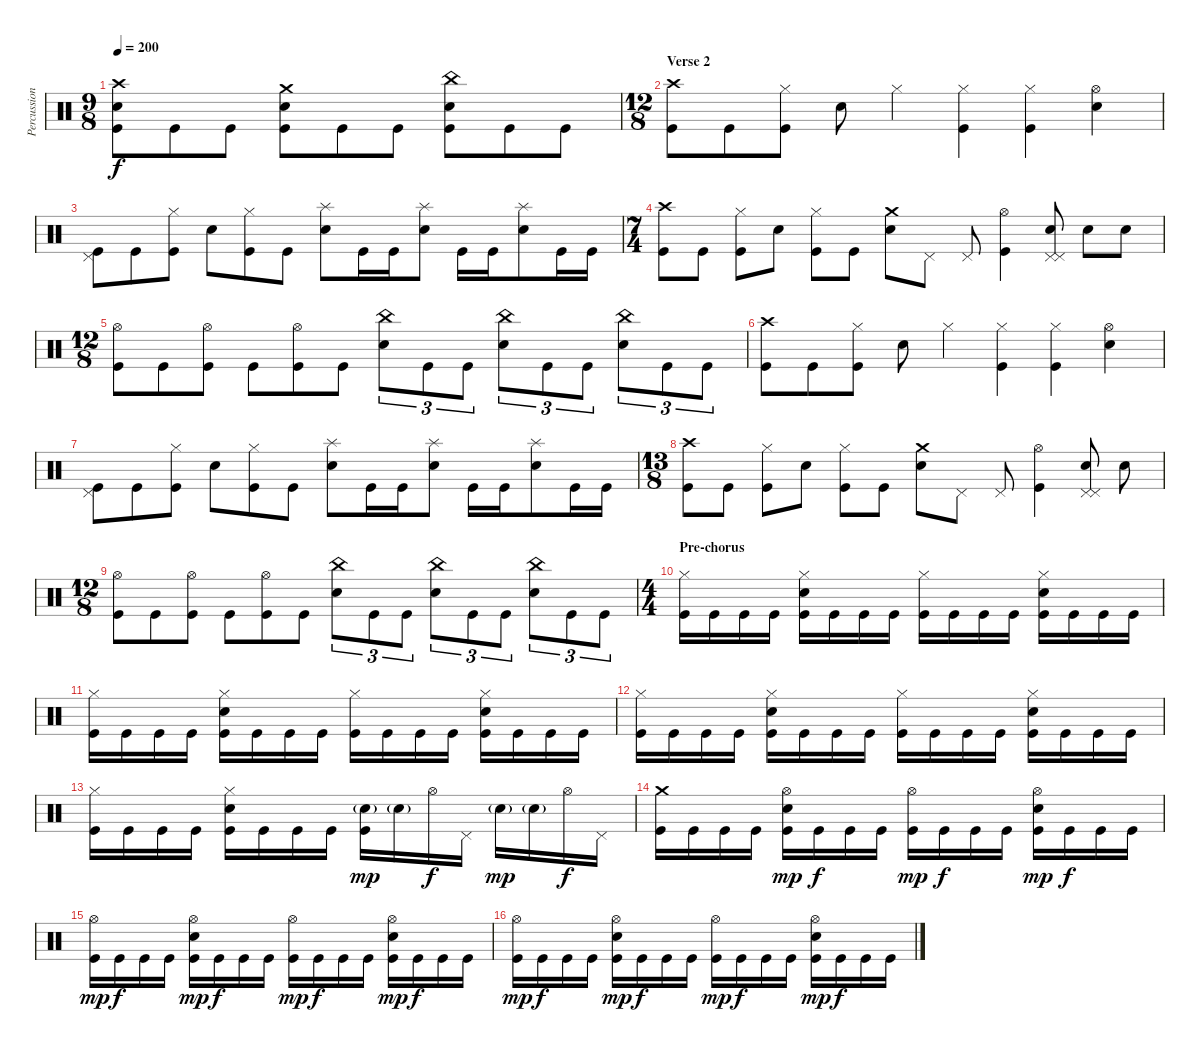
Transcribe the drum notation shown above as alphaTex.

\track ("Percussion" "Percussion") {instrument percussion}
\staff {score}
\articulation defaults
\ts (9 8)
\tempo 200
\clef neutral
\ks c
("Crash high (hit)" "Electric Snare (hit)" "Kick (hit)").8{dy f} "Kick (hit)".8 "Kick (hit)".8 ("Crash medium (hit)" "Electric Snare (hit)" "Kick (hit)").8 "Kick (hit)".8 "Kick (hit)".8 ("China (hit)" "Electric Snare (hit)" "Kick (hit)").8 "Kick (hit)".8 "Kick (hit)".8 |
\ts (12 8)
\section ("" "Verse 2")
("Crash high (hit)" "Kick (hit)").8 "Kick (hit)".8 ("Hi-Hat (closed)" "Kick (hit)").8 "Electric Snare (hit)".8 "Hi-Hat (closed)".4 ("Hi-Hat (closed)" "Kick (hit)").4 ("Hi-Hat (closed)" "Kick (hit)").4 ("Hi-Hat (open)" "Electric Snare (hit)").4 |
("Pedal Hi-Hat (hit)" "Kick (hit)").8 "Kick (hit)".8 ("Hi-Hat (closed)" "Kick (hit)").8 "Electric Snare (hit)".8 ("Hi-Hat (closed)" "Kick (hit)").8 "Kick (hit)".8 ("Splash (hit)" "Electric Snare (hit)").8 "Kick (hit)".16 "Kick (hit)".16 ("Splash (hit)" "Electric Snare (hit)").8 "Kick (hit)".16 "Kick (hit)".16 ("Splash (hit)" "Electric Snare (hit)").8 "Kick (hit)".16 "Kick (hit)".16 |
\ts (7 4)
("Crash high (hit)" "Kick (hit)").8 "Kick (hit)".8 ("Hi-Hat (closed)" "Kick (hit)").8 "Electric Snare (hit)".8 ("Hi-Hat (closed)" "Kick (hit)").8 "Kick (hit)".8 ("Crash medium (hit)" "Electric Snare (hit)").8 "Pedal Hi-Hat (hit)".8 "Pedal Hi-Hat (hit)".8 ("Hi-Hat (open)" "Kick (hit)").4 ("Pedal Hi-Hat (hit)" "Electric Snare (hit)" "Pedal Hi-Hat (hit)").8 "Electric Snare (hit)".8 "Electric Snare (hit)".8 |
\ts (12 8)
("Hi-Hat (open)" "Kick (hit)").8 "Kick (hit)".8 ("Hi-Hat (open)" "Kick (hit)").8 "Kick (hit)".8 ("Hi-Hat (open)" "Kick (hit)").8 "Kick (hit)".8 ("China (hit)" "Electric Snare (hit)").8{tu (3 2)} "Kick (hit)".8{tu (3 2)} "Kick (hit)".8{tu (3 2)} ("China (hit)" "Electric Snare (hit)").8{tu (3 2)} "Kick (hit)".8{tu (3 2)} "Kick (hit)".8{tu (3 2)} ("China (hit)" "Electric Snare (hit)").8{tu (3 2)} "Kick (hit)".8{tu (3 2)} "Kick (hit)".8{tu (3 2)} |
("Crash high (hit)" "Kick (hit)").8 "Kick (hit)".8 ("Hi-Hat (closed)" "Kick (hit)").8 "Electric Snare (hit)".8 "Hi-Hat (closed)".4 ("Hi-Hat (closed)" "Kick (hit)").4 ("Hi-Hat (closed)" "Kick (hit)").4 ("Hi-Hat (open)" "Electric Snare (hit)").4 |
("Pedal Hi-Hat (hit)" "Kick (hit)").8 "Kick (hit)".8 ("Hi-Hat (closed)" "Kick (hit)").8 "Electric Snare (hit)".8 ("Hi-Hat (closed)" "Kick (hit)").8 "Kick (hit)".8 ("Splash (hit)" "Electric Snare (hit)").8 "Kick (hit)".16 "Kick (hit)".16 ("Splash (hit)" "Electric Snare (hit)").8 "Kick (hit)".16 "Kick (hit)".16 ("Splash (hit)" "Electric Snare (hit)").8 "Kick (hit)".16 "Kick (hit)".16 |
\ts (13 8)
("Crash high (hit)" "Kick (hit)").8 "Kick (hit)".8 ("Hi-Hat (closed)" "Kick (hit)").8 "Electric Snare (hit)".8 ("Hi-Hat (closed)" "Kick (hit)").8 "Kick (hit)".8 ("Crash medium (hit)" "Electric Snare (hit)").8 "Pedal Hi-Hat (hit)".8 "Pedal Hi-Hat (hit)".8 ("Hi-Hat (open)" "Kick (hit)").4 ("Pedal Hi-Hat (hit)" "Electric Snare (hit)" "Pedal Hi-Hat (hit)").8 "Electric Snare (hit)".8 |
\ts (12 8)
("Hi-Hat (open)" "Kick (hit)").8 "Kick (hit)".8 ("Hi-Hat (open)" "Kick (hit)").8 "Kick (hit)".8 ("Hi-Hat (open)" "Kick (hit)").8 "Kick (hit)".8 ("China (hit)" "Electric Snare (hit)").8{tu (3 2)} "Kick (hit)".8{tu (3 2)} "Kick (hit)".8{tu (3 2)} ("China (hit)" "Electric Snare (hit)").8{tu (3 2)} "Kick (hit)".8{tu (3 2)} "Kick (hit)".8{tu (3 2)} ("China (hit)" "Electric Snare (hit)").8{tu (3 2)} "Kick (hit)".8{tu (3 2)} "Kick (hit)".8{tu (3 2)} |
\ts (4 4)
\section ("" "Pre-chorus")
("Hi-Hat (closed)" "Kick (hit)").16 "Kick (hit)".16 "Kick (hit)".16 "Kick (hit)".16 ("Hi-Hat (closed)" "Electric Snare (hit)" "Kick (hit)").16 "Kick (hit)".16 "Kick (hit)".16 "Kick (hit)".16 ("Hi-Hat (closed)" "Kick (hit)").16 "Kick (hit)".16 "Kick (hit)".16 "Kick (hit)".16 ("Hi-Hat (closed)" "Electric Snare (hit)" "Kick (hit)").16 "Kick (hit)".16 "Kick (hit)".16 "Kick (hit)".16 |
("Hi-Hat (closed)" "Kick (hit)").16 "Kick (hit)".16 "Kick (hit)".16 "Kick (hit)".16 ("Hi-Hat (closed)" "Electric Snare (hit)" "Kick (hit)").16 "Kick (hit)".16 "Kick (hit)".16 "Kick (hit)".16 ("Hi-Hat (closed)" "Kick (hit)").16 "Kick (hit)".16 "Kick (hit)".16 "Kick (hit)".16 ("Hi-Hat (closed)" "Electric Snare (hit)" "Kick (hit)").16 "Kick (hit)".16 "Kick (hit)".16 "Kick (hit)".16 |
("Hi-Hat (closed)" "Kick (hit)").16 "Kick (hit)".16 "Kick (hit)".16 "Kick (hit)".16 ("Hi-Hat (closed)" "Electric Snare (hit)" "Kick (hit)").16 "Kick (hit)".16 "Kick (hit)".16 "Kick (hit)".16 ("Hi-Hat (closed)" "Kick (hit)").16 "Kick (hit)".16 "Kick (hit)".16 "Kick (hit)".16 ("Hi-Hat (closed)" "Electric Snare (hit)" "Kick (hit)").16 "Kick (hit)".16 "Kick (hit)".16 "Kick (hit)".16 |
("Hi-Hat (closed)" "Kick (hit)").16 "Kick (hit)".16 "Kick (hit)".16 "Kick (hit)".16 ("Hi-Hat (closed)" "Electric Snare (hit)" "Kick (hit)").16 "Kick (hit)".16 "Kick (hit)".16 "Kick (hit)".16 ("Electric Snare (hit)"{g} "Kick (hit)").16{dy mp} "Electric Snare (hit)"{g}.16 "Hi-Hat (open)".16{dy f} "Pedal Hi-Hat (hit)".16 "Electric Snare (hit)"{g}.16{dy mp} "Electric Snare (hit)"{g}.16 "Hi-Hat (open)".16{dy f} "Pedal Hi-Hat (hit)".16 |
("Crash medium (hit)" "Kick (hit)").16 "Kick (hit)".16 "Kick (hit)".16 "Kick (hit)".16 ("Hi-Hat (open)" "Electric Snare (hit)" "Kick (hit)").16{dy mp} "Kick (hit)".16{dy f} "Kick (hit)".16 "Kick (hit)".16 ("Hi-Hat (open)" "Kick (hit)").16{dy mp} "Kick (hit)".16{dy f} "Kick (hit)".16 "Kick (hit)".16 ("Hi-Hat (open)" "Electric Snare (hit)" "Kick (hit)").16{dy mp} "Kick (hit)".16{dy f} "Kick (hit)".16 "Kick (hit)".16 |
("Hi-Hat (open)" "Kick (hit)").16{dy mp} "Kick (hit)".16{dy f} "Kick (hit)".16 "Kick (hit)".16 ("Hi-Hat (open)" "Electric Snare (hit)" "Kick (hit)").16{dy mp} "Kick (hit)".16{dy f} "Kick (hit)".16 "Kick (hit)".16 ("Hi-Hat (open)" "Kick (hit)").16{dy mp} "Kick (hit)".16{dy f} "Kick (hit)".16 "Kick (hit)".16 ("Hi-Hat (open)" "Electric Snare (hit)" "Kick (hit)").16{dy mp} "Kick (hit)".16{dy f} "Kick (hit)".16 "Kick (hit)".16 |
("Hi-Hat (open)" "Kick (hit)").16{dy mp} "Kick (hit)".16{dy f} "Kick (hit)".16 "Kick (hit)".16 ("Hi-Hat (open)" "Electric Snare (hit)" "Kick (hit)").16{dy mp} "Kick (hit)".16{dy f} "Kick (hit)".16 "Kick (hit)".16 ("Hi-Hat (open)" "Kick (hit)").16{dy mp} "Kick (hit)".16{dy f} "Kick (hit)".16 "Kick (hit)".16 ("Hi-Hat (open)" "Electric Snare (hit)" "Kick (hit)").16{dy mp} "Kick (hit)".16{dy f} "Kick (hit)".16 "Kick (hit)".16
